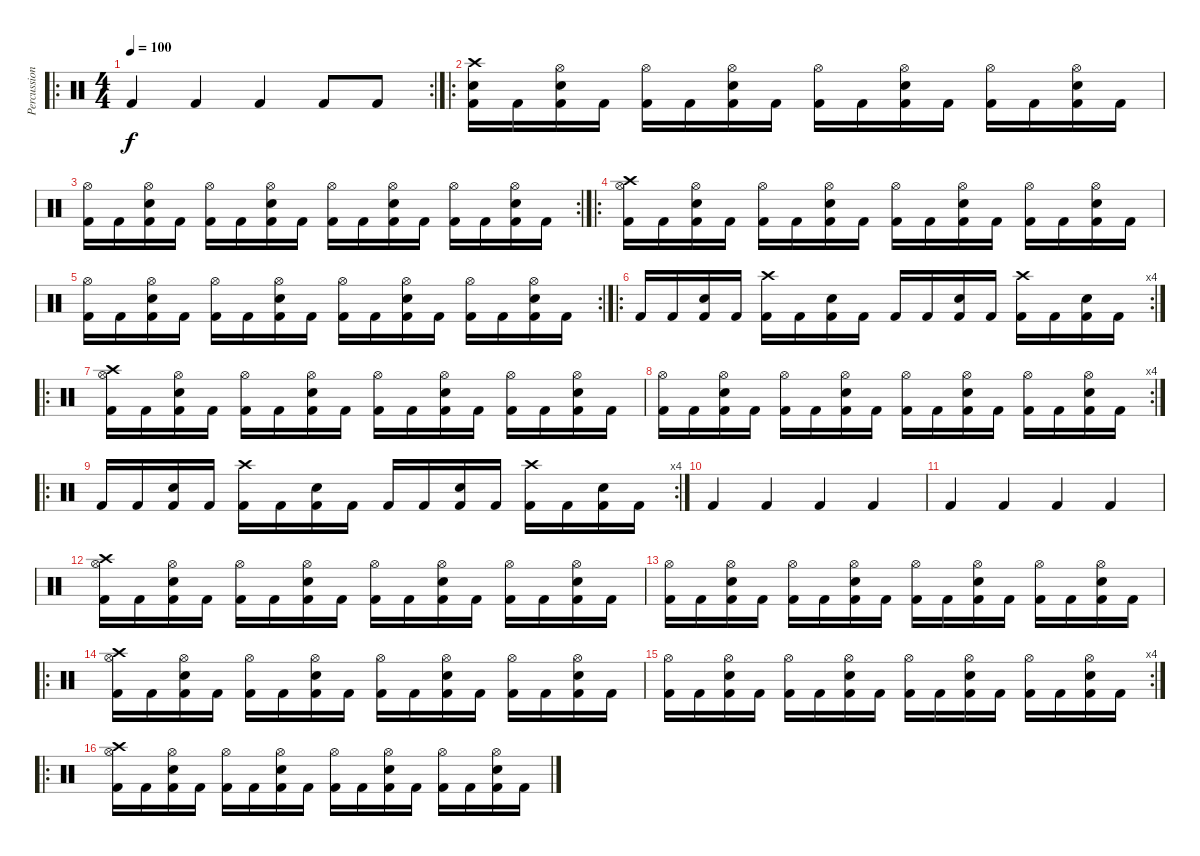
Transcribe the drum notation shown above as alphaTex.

\track ("Percussion" "Percussion") {instrument percussion}
\staff {score}
\articulation defaults
\ro
\rc 2
\ts (4 4)
\tempo 100
\clef neutral
\ks c "Kick (hit) 2".4{dy f} "Kick (hit) 2".4 "Kick (hit) 2".4 "Kick (hit) 2".8 "Kick (hit) 2".8
|
\ro
("Crash high (hit)" "Snare (hit) 2" "Kick (hit) 2").16 "Kick (hit) 2".16 ("Snare (hit) 2" "Hi-Hat (open)" "Kick (hit) 2").16 "Kick (hit) 2".16 ("Hi-Hat (open)" "Kick (hit) 2").16 "Kick (hit) 2".16 ("Snare (hit) 2" "Hi-Hat (open)" "Kick (hit) 2").16 "Kick (hit) 2".16 ("Hi-Hat (open)" "Kick (hit) 2").16 "Kick (hit) 2".16 ("Snare (hit) 2" "Hi-Hat (open)" "Kick (hit) 2").16 "Kick (hit) 2".16 ("Hi-Hat (open)" "Kick (hit) 2").16 "Kick (hit) 2".16 ("Snare (hit) 2" "Hi-Hat (open)" "Kick (hit) 2").16 "Kick (hit) 2".16 |
\rc 2
("Hi-Hat (open)" "Kick (hit) 2").16 "Kick (hit) 2".16 ("Snare (hit) 2" "Hi-Hat (open)" "Kick (hit) 2").16 "Kick (hit) 2".16 ("Hi-Hat (open)" "Kick (hit) 2").16 "Kick (hit) 2".16 ("Snare (hit) 2" "Hi-Hat (open)" "Kick (hit) 2").16 "Kick (hit) 2".16 ("Hi-Hat (open)" "Kick (hit) 2").16 "Kick (hit) 2".16 ("Snare (hit) 2" "Hi-Hat (open)" "Kick (hit) 2").16 "Kick (hit) 2".16 ("Hi-Hat (open)" "Kick (hit) 2").16 "Kick (hit) 2".16 ("Snare (hit) 2" "Hi-Hat (open)" "Kick (hit) 2").16 "Kick (hit) 2".16 |
\ro
("Crash high (hit)" "Hi-Hat (open)" "Kick (hit) 2").16 "Kick (hit) 2".16 ("Snare (hit) 2" "Hi-Hat (open)" "Kick (hit) 2").16 "Kick (hit) 2".16 ("Hi-Hat (open)" "Kick (hit) 2").16 "Kick (hit) 2".16 ("Snare (hit) 2" "Hi-Hat (open)" "Kick (hit) 2").16 "Kick (hit) 2".16 ("Hi-Hat (open)" "Kick (hit) 2").16 "Kick (hit) 2".16 ("Snare (hit) 2" "Hi-Hat (open)" "Kick (hit) 2").16 "Kick (hit) 2".16 ("Hi-Hat (open)" "Kick (hit) 2").16 "Kick (hit) 2".16 ("Snare (hit) 2" "Hi-Hat (open)" "Kick (hit) 2").16 "Kick (hit) 2".16 |
\rc 2
("Hi-Hat (open)" "Kick (hit) 2").16 "Kick (hit) 2".16 ("Snare (hit) 2" "Hi-Hat (open)" "Kick (hit) 2").16 "Kick (hit) 2".16 ("Hi-Hat (open)" "Kick (hit) 2").16 "Kick (hit) 2".16 ("Snare (hit) 2" "Hi-Hat (open)" "Kick (hit) 2").16 "Kick (hit) 2".16 ("Hi-Hat (open)" "Kick (hit) 2").16 "Kick (hit) 2".16 ("Snare (hit) 2" "Hi-Hat (open)" "Kick (hit) 2").16 "Kick (hit) 2".16 ("Hi-Hat (open)" "Kick (hit) 2").16 "Kick (hit) 2".16 ("Snare (hit) 2" "Hi-Hat (open)" "Kick (hit) 2").16 "Kick (hit) 2".16 |
\ro
\rc 4 "Kick (hit) 2".16 "Kick (hit) 2".16
("Snare (hit) 2" "Kick (hit) 2").16 "Kick (hit) 2".16 ("Crash high (hit)" "Kick (hit) 2").16 "Kick (hit) 2".16 ("Snare (hit) 2" "Kick (hit) 2").16 "Kick (hit) 2".16 "Kick (hit) 2".16 "Kick (hit) 2".16 ("Snare (hit) 2" "Kick (hit) 2").16 "Kick (hit) 2".16 ("Crash high (hit)" "Kick (hit) 2").16 "Kick (hit) 2".16 ("Snare (hit) 2" "Kick (hit) 2").16 "Kick (hit) 2".16 |
\ro
("Crash high (hit)" "Hi-Hat (open)" "Kick (hit) 2").16 "Kick (hit) 2".16 ("Snare (hit) 2" "Hi-Hat (open)" "Kick (hit) 2").16 "Kick (hit) 2".16 ("Hi-Hat (open)" "Kick (hit) 2").16 "Kick (hit) 2".16 ("Snare (hit) 2" "Hi-Hat (open)" "Kick (hit) 2").16 "Kick (hit) 2".16 ("Hi-Hat (open)" "Kick (hit) 2").16 "Kick (hit) 2".16 ("Snare (hit) 2" "Hi-Hat (open)" "Kick (hit) 2").16 "Kick (hit) 2".16 ("Hi-Hat (open)" "Kick (hit) 2").16 "Kick (hit) 2".16 ("Snare (hit) 2" "Hi-Hat (open)" "Kick (hit) 2").16 "Kick (hit) 2".16 |
\rc 4
("Hi-Hat (open)" "Kick (hit) 2").16 "Kick (hit) 2".16 ("Snare (hit) 2" "Hi-Hat (open)" "Kick (hit) 2").16 "Kick (hit) 2".16 ("Hi-Hat (open)" "Kick (hit) 2").16 "Kick (hit) 2".16 ("Snare (hit) 2" "Hi-Hat (open)" "Kick (hit) 2").16 "Kick (hit) 2".16 ("Hi-Hat (open)" "Kick (hit) 2").16 "Kick (hit) 2".16 ("Snare (hit) 2" "Hi-Hat (open)" "Kick (hit) 2").16 "Kick (hit) 2".16 ("Hi-Hat (open)" "Kick (hit) 2").16 "Kick (hit) 2".16 ("Snare (hit) 2" "Hi-Hat (open)" "Kick (hit) 2").16 "Kick (hit) 2".16 |
\ro
\rc 4 "Kick (hit) 2".16 "Kick (hit) 2".16
("Snare (hit) 2" "Kick (hit) 2").16 "Kick (hit) 2".16 ("Crash high (hit)" "Kick (hit) 2").16 "Kick (hit) 2".16 ("Snare (hit) 2" "Kick (hit) 2").16 "Kick (hit) 2".16 "Kick (hit) 2".16 "Kick (hit) 2".16 ("Snare (hit) 2" "Kick (hit) 2").16 "Kick (hit) 2".16 ("Crash high (hit)" "Kick (hit) 2").16 "Kick (hit) 2".16 ("Snare (hit) 2" "Kick (hit) 2").16 "Kick (hit) 2".16 |
"Kick (hit) 2".4 "Kick (hit) 2".4 "Kick (hit) 2".4 "Kick (hit) 2".4 |
"Kick (hit) 2".4 "Kick (hit) 2".4 "Kick (hit) 2".4 "Kick (hit) 2".4 |
("Crash high (hit)" "Hi-Hat (open)" "Kick (hit) 2").16 "Kick (hit) 2".16 ("Snare (hit) 2" "Hi-Hat (open)" "Kick (hit) 2").16 "Kick (hit) 2".16 ("Hi-Hat (open)" "Kick (hit) 2").16 "Kick (hit) 2".16 ("Snare (hit) 2" "Hi-Hat (open)" "Kick (hit) 2").16 "Kick (hit) 2".16 ("Hi-Hat (open)" "Kick (hit) 2").16 "Kick (hit) 2".16 ("Snare (hit) 2" "Hi-Hat (open)" "Kick (hit) 2").16 "Kick (hit) 2".16 ("Hi-Hat (open)" "Kick (hit) 2").16 "Kick (hit) 2".16 ("Snare (hit) 2" "Hi-Hat (open)" "Kick (hit) 2").16 "Kick (hit) 2".16 |
("Hi-Hat (open)" "Kick (hit) 2").16 "Kick (hit) 2".16 ("Snare (hit) 2" "Hi-Hat (open)" "Kick (hit) 2").16 "Kick (hit) 2".16 ("Hi-Hat (open)" "Kick (hit) 2").16 "Kick (hit) 2".16 ("Snare (hit) 2" "Hi-Hat (open)" "Kick (hit) 2").16 "Kick (hit) 2".16 ("Hi-Hat (open)" "Kick (hit) 2").16 "Kick (hit) 2".16 ("Snare (hit) 2" "Hi-Hat (open)" "Kick (hit) 2").16 "Kick (hit) 2".16 ("Hi-Hat (open)" "Kick (hit) 2").16 "Kick (hit) 2".16 ("Snare (hit) 2" "Hi-Hat (open)" "Kick (hit) 2").16 "Kick (hit) 2".16 |
\ro
("Crash high (hit)" "Hi-Hat (open)" "Kick (hit) 2").16 "Kick (hit) 2".16 ("Snare (hit) 2" "Hi-Hat (open)" "Kick (hit) 2").16 "Kick (hit) 2".16 ("Hi-Hat (open)" "Kick (hit) 2").16 "Kick (hit) 2".16 ("Snare (hit) 2" "Hi-Hat (open)" "Kick (hit) 2").16 "Kick (hit) 2".16 ("Hi-Hat (open)" "Kick (hit) 2").16 "Kick (hit) 2".16 ("Snare (hit) 2" "Hi-Hat (open)" "Kick (hit) 2").16 "Kick (hit) 2".16 ("Hi-Hat (open)" "Kick (hit) 2").16 "Kick (hit) 2".16 ("Snare (hit) 2" "Hi-Hat (open)" "Kick (hit) 2").16 "Kick (hit) 2".16 |
\rc 4
("Hi-Hat (open)" "Kick (hit) 2").16 "Kick (hit) 2".16 ("Snare (hit) 2" "Hi-Hat (open)" "Kick (hit) 2").16 "Kick (hit) 2".16 ("Hi-Hat (open)" "Kick (hit) 2").16 "Kick (hit) 2".16 ("Snare (hit) 2" "Hi-Hat (open)" "Kick (hit) 2").16 "Kick (hit) 2".16 ("Hi-Hat (open)" "Kick (hit) 2").16 "Kick (hit) 2".16 ("Snare (hit) 2" "Hi-Hat (open)" "Kick (hit) 2").16 "Kick (hit) 2".16 ("Hi-Hat (open)" "Kick (hit) 2").16 "Kick (hit) 2".16 ("Snare (hit) 2" "Hi-Hat (open)" "Kick (hit) 2").16 "Kick (hit) 2".16 |
\ro
("Crash high (hit)" "Hi-Hat (open)" "Kick (hit) 2").16 "Kick (hit) 2".16 ("Snare (hit) 2" "Hi-Hat (open)" "Kick (hit) 2").16 "Kick (hit) 2".16 ("Hi-Hat (open)" "Kick (hit) 2").16 "Kick (hit) 2".16 ("Snare (hit) 2" "Hi-Hat (open)" "Kick (hit) 2").16 "Kick (hit) 2".16 ("Hi-Hat (open)" "Kick (hit) 2").16 "Kick (hit) 2".16 ("Snare (hit) 2" "Hi-Hat (open)" "Kick (hit) 2").16 "Kick (hit) 2".16 ("Hi-Hat (open)" "Kick (hit) 2").16 "Kick (hit) 2".16 ("Snare (hit) 2" "Hi-Hat (open)" "Kick (hit) 2").16 "Kick (hit) 2".16
